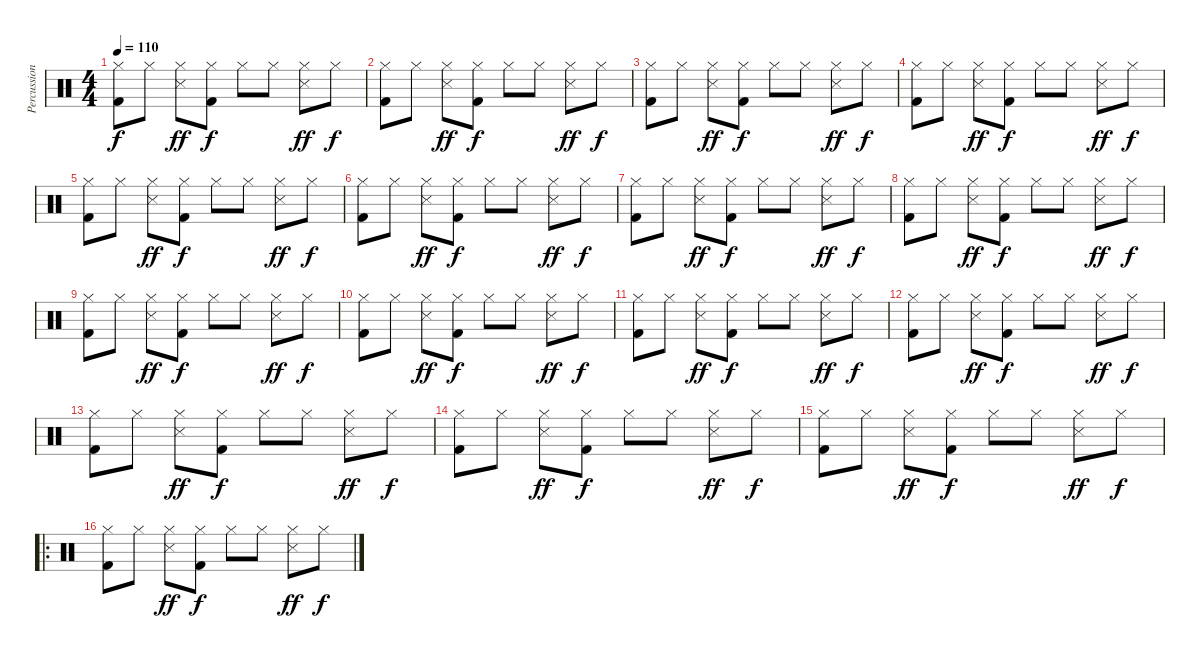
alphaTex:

\track ("Percussion" "Percussion") {instrument percussion}
\staff {score}
\articulation defaults
\ts (4 4)
\tempo 110
\clef neutral
\ks c
("Hi-Hat (closed)" "Kick (hit) 2").8{dy f} "Hi-Hat (closed)".8 ("Hi-Hat (closed)" "Snare (side stick) 3").8{dy ff} ("Hi-Hat (closed)" "Kick (hit) 2").8{dy f} "Hi-Hat (closed)".8 "Hi-Hat (closed)".8 ("Hi-Hat (closed)" "Snare (side stick) 3").8{dy ff} "Hi-Hat (closed)".8{dy f} |
("Hi-Hat (closed)" "Kick (hit) 2").8 "Hi-Hat (closed)".8 ("Hi-Hat (closed)" "Snare (side stick) 3").8{dy ff} ("Hi-Hat (closed)" "Kick (hit) 2").8{dy f} "Hi-Hat (closed)".8 "Hi-Hat (closed)".8 ("Hi-Hat (closed)" "Snare (side stick) 3").8{dy ff} "Hi-Hat (closed)".8{dy f} |
("Hi-Hat (closed)" "Kick (hit) 2").8 "Hi-Hat (closed)".8 ("Hi-Hat (closed)" "Snare (side stick) 3").8{dy ff} ("Hi-Hat (closed)" "Kick (hit) 2").8{dy f} "Hi-Hat (closed)".8 "Hi-Hat (closed)".8 ("Hi-Hat (closed)" "Snare (side stick) 3").8{dy ff} "Hi-Hat (closed)".8{dy f} |
("Hi-Hat (closed)" "Kick (hit) 2").8 "Hi-Hat (closed)".8 ("Hi-Hat (closed)" "Snare (side stick) 3").8{dy ff} ("Hi-Hat (closed)" "Kick (hit) 2").8{dy f} "Hi-Hat (closed)".8 "Hi-Hat (closed)".8 ("Hi-Hat (closed)" "Snare (side stick) 3").8{dy ff} "Hi-Hat (closed)".8{dy f} |
("Hi-Hat (closed)" "Kick (hit) 2").8 "Hi-Hat (closed)".8 ("Hi-Hat (closed)" "Snare (side stick) 3").8{dy ff} ("Hi-Hat (closed)" "Kick (hit) 2").8{dy f} "Hi-Hat (closed)".8 "Hi-Hat (closed)".8 ("Hi-Hat (closed)" "Snare (side stick) 3").8{dy ff} "Hi-Hat (closed)".8{dy f} |
("Hi-Hat (closed)" "Kick (hit) 2").8 "Hi-Hat (closed)".8 ("Hi-Hat (closed)" "Snare (side stick) 3").8{dy ff} ("Hi-Hat (closed)" "Kick (hit) 2").8{dy f} "Hi-Hat (closed)".8 "Hi-Hat (closed)".8 ("Hi-Hat (closed)" "Snare (side stick) 3").8{dy ff} "Hi-Hat (closed)".8{dy f} |
("Hi-Hat (closed)" "Kick (hit) 2").8 "Hi-Hat (closed)".8 ("Hi-Hat (closed)" "Snare (side stick) 3").8{dy ff} ("Hi-Hat (closed)" "Kick (hit) 2").8{dy f} "Hi-Hat (closed)".8 "Hi-Hat (closed)".8 ("Hi-Hat (closed)" "Snare (side stick) 3").8{dy ff} "Hi-Hat (closed)".8{dy f} |
("Hi-Hat (closed)" "Kick (hit) 2").8 "Hi-Hat (closed)".8 ("Hi-Hat (closed)" "Snare (side stick) 3").8{dy ff} ("Hi-Hat (closed)" "Kick (hit) 2").8{dy f} "Hi-Hat (closed)".8 "Hi-Hat (closed)".8 ("Hi-Hat (closed)" "Snare (side stick) 3").8{dy ff} "Hi-Hat (closed)".8{dy f} |
("Hi-Hat (closed)" "Kick (hit) 2").8 "Hi-Hat (closed)".8 ("Hi-Hat (closed)" "Snare (side stick) 3").8{dy ff} ("Hi-Hat (closed)" "Kick (hit) 2").8{dy f} "Hi-Hat (closed)".8 "Hi-Hat (closed)".8 ("Hi-Hat (closed)" "Snare (side stick) 3").8{dy ff} "Hi-Hat (closed)".8{dy f} |
("Hi-Hat (closed)" "Kick (hit) 2").8 "Hi-Hat (closed)".8 ("Hi-Hat (closed)" "Snare (side stick) 3").8{dy ff} ("Hi-Hat (closed)" "Kick (hit) 2").8{dy f} "Hi-Hat (closed)".8 "Hi-Hat (closed)".8 ("Hi-Hat (closed)" "Snare (side stick) 3").8{dy ff} "Hi-Hat (closed)".8{dy f} |
("Hi-Hat (closed)" "Kick (hit) 2").8 "Hi-Hat (closed)".8 ("Hi-Hat (closed)" "Snare (side stick) 3").8{dy ff} ("Hi-Hat (closed)" "Kick (hit) 2").8{dy f} "Hi-Hat (closed)".8 "Hi-Hat (closed)".8 ("Hi-Hat (closed)" "Snare (side stick) 3").8{dy ff} "Hi-Hat (closed)".8{dy f} |
("Hi-Hat (closed)" "Kick (hit) 2").8 "Hi-Hat (closed)".8 ("Hi-Hat (closed)" "Snare (side stick) 3").8{dy ff} ("Hi-Hat (closed)" "Kick (hit) 2").8{dy f} "Hi-Hat (closed)".8 "Hi-Hat (closed)".8 ("Hi-Hat (closed)" "Snare (side stick) 3").8{dy ff} "Hi-Hat (closed)".8{dy f} |
("Hi-Hat (closed)" "Kick (hit) 2").8 "Hi-Hat (closed)".8 ("Hi-Hat (closed)" "Snare (side stick) 3").8{dy ff} ("Hi-Hat (closed)" "Kick (hit) 2").8{dy f} "Hi-Hat (closed)".8 "Hi-Hat (closed)".8 ("Hi-Hat (closed)" "Snare (side stick) 3").8{dy ff} "Hi-Hat (closed)".8{dy f} |
("Hi-Hat (closed)" "Kick (hit) 2").8 "Hi-Hat (closed)".8 ("Hi-Hat (closed)" "Snare (side stick) 3").8{dy ff} ("Hi-Hat (closed)" "Kick (hit) 2").8{dy f} "Hi-Hat (closed)".8 "Hi-Hat (closed)".8 ("Hi-Hat (closed)" "Snare (side stick) 3").8{dy ff} "Hi-Hat (closed)".8{dy f} |
("Hi-Hat (closed)" "Kick (hit) 2").8 "Hi-Hat (closed)".8 ("Hi-Hat (closed)" "Snare (side stick) 3").8{dy ff} ("Hi-Hat (closed)" "Kick (hit) 2").8{dy f} "Hi-Hat (closed)".8 "Hi-Hat (closed)".8 ("Hi-Hat (closed)" "Snare (side stick) 3").8{dy ff} "Hi-Hat (closed)".8{dy f} |
\ro
("Hi-Hat (closed)" "Kick (hit) 2").8 "Hi-Hat (closed)".8 ("Hi-Hat (closed)" "Snare (side stick) 3").8{dy ff} ("Hi-Hat (closed)" "Kick (hit) 2").8{dy f} "Hi-Hat (closed)".8 "Hi-Hat (closed)".8 ("Hi-Hat (closed)" "Snare (side stick) 3").8{dy ff} "Hi-Hat (closed)".8{dy f}
